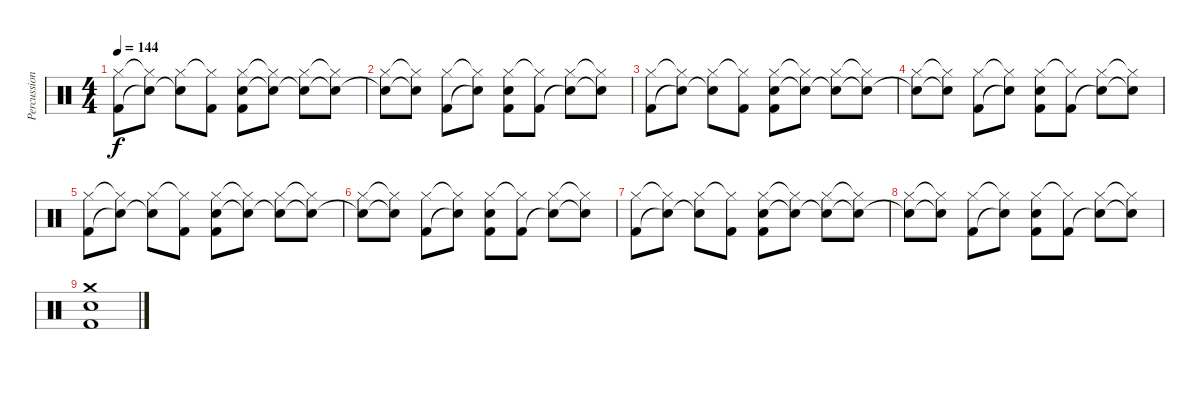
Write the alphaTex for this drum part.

\track ("Percussion" "Percussion") {instrument percussion}
\staff {score}
\articulation defaults
\ts (4 4)
\tempo 144
\clef neutral
\ks c
("Hi-Hat (closed)" "Kick (hit) 2").8{dy f} ("Hi-Hat (closed)"{t} "Snare (hit)"{t}).8 ("Hi-Hat (closed)" "Snare (hit)"{t}).8 ("Hi-Hat (closed)"{t} "Kick (hit) 2").8 ("Hi-Hat (closed)" "Electric Snare (hit)" "Kick (hit) 2").8 ("Hi-Hat (closed)"{t} "Snare (hit)"{t}).8 ("Hi-Hat (closed)" "Snare (hit)"{t}).8 ("Hi-Hat (closed)"{t} "Snare (hit)"{t}).8 |
("Hi-Hat (closed)" "Snare (hit)"{t}).8 ("Hi-Hat (closed)"{t} "Snare (hit)"{t}).8 ("Hi-Hat (closed)" "Kick (hit) 2").8 ("Hi-Hat (closed)"{t} "Snare (hit)"{t}).8 ("Hi-Hat (closed)" "Electric Snare (hit)" "Kick (hit) 2").8 ("Hi-Hat (closed)"{t} "Kick (hit) 2").8 ("Hi-Hat (closed)" "Snare (hit)"{t}).8 ("Hi-Hat (closed)"{t} "Snare (hit)"{t}).8 |
("Hi-Hat (closed)" "Kick (hit) 2").8 ("Hi-Hat (closed)"{t} "Snare (hit)"{t}).8 ("Hi-Hat (closed)" "Snare (hit)"{t}).8 ("Hi-Hat (closed)"{t} "Kick (hit) 2").8 ("Hi-Hat (closed)" "Electric Snare (hit)" "Kick (hit) 2").8 ("Hi-Hat (closed)"{t} "Snare (hit)"{t}).8 ("Hi-Hat (closed)" "Snare (hit)"{t}).8 ("Hi-Hat (closed)"{t} "Snare (hit)"{t}).8 |
("Hi-Hat (closed)" "Snare (hit)"{t}).8 ("Hi-Hat (closed)"{t} "Snare (hit)"{t}).8 ("Hi-Hat (closed)" "Kick (hit) 2").8 ("Hi-Hat (closed)"{t} "Snare (hit)"{t}).8 ("Hi-Hat (closed)" "Electric Snare (hit)" "Kick (hit) 2").8 ("Hi-Hat (closed)"{t} "Kick (hit) 2").8 ("Hi-Hat (closed)" "Snare (hit)"{t}).8 ("Hi-Hat (closed)"{t} "Snare (hit)"{t}).8 |
("Hi-Hat (closed)" "Kick (hit) 2").8 ("Hi-Hat (closed)"{t} "Snare (hit)"{t}).8 ("Hi-Hat (closed)" "Snare (hit)"{t}).8 ("Hi-Hat (closed)"{t} "Kick (hit) 2").8 ("Hi-Hat (closed)" "Electric Snare (hit)" "Kick (hit) 2").8 ("Hi-Hat (closed)"{t} "Snare (hit)"{t}).8 ("Hi-Hat (closed)" "Snare (hit)"{t}).8 ("Hi-Hat (closed)"{t} "Snare (hit)"{t}).8 |
("Hi-Hat (closed)" "Snare (hit)"{t}).8 ("Hi-Hat (closed)"{t} "Snare (hit)"{t}).8 ("Hi-Hat (closed)" "Kick (hit) 2").8 ("Hi-Hat (closed)"{t} "Snare (hit)"{t}).8 ("Hi-Hat (closed)" "Electric Snare (hit)" "Kick (hit) 2").8 ("Hi-Hat (closed)"{t} "Kick (hit) 2").8 ("Hi-Hat (closed)" "Snare (hit)"{t}).8 ("Hi-Hat (closed)"{t} "Snare (hit)"{t}).8 |
("Hi-Hat (closed)" "Kick (hit) 2").8 ("Hi-Hat (closed)"{t} "Snare (hit)"{t}).8 ("Hi-Hat (closed)" "Snare (hit)"{t}).8 ("Hi-Hat (closed)"{t} "Kick (hit) 2").8 ("Hi-Hat (closed)" "Electric Snare (hit)" "Kick (hit) 2").8 ("Hi-Hat (closed)"{t} "Snare (hit)"{t}).8 ("Hi-Hat (closed)" "Snare (hit)"{t}).8 ("Hi-Hat (closed)"{t} "Snare (hit)"{t}).8 |
("Hi-Hat (closed)" "Snare (hit)"{t}).8 ("Hi-Hat (closed)"{t} "Snare (hit)"{t}).8 ("Hi-Hat (closed)" "Kick (hit) 2").8 ("Hi-Hat (closed)"{t} "Snare (hit)"{t}).8 ("Hi-Hat (closed)" "Electric Snare (hit)" "Kick (hit) 2").8 ("Hi-Hat (closed)"{t} "Kick (hit) 2").8 ("Hi-Hat (closed)" "Snare (hit)"{t}).8 ("Hi-Hat (closed)"{t} "Snare (hit)"{t}).8 |
("Crash medium (hit)" "Electric Snare (hit)" "Kick (hit) 2").1
